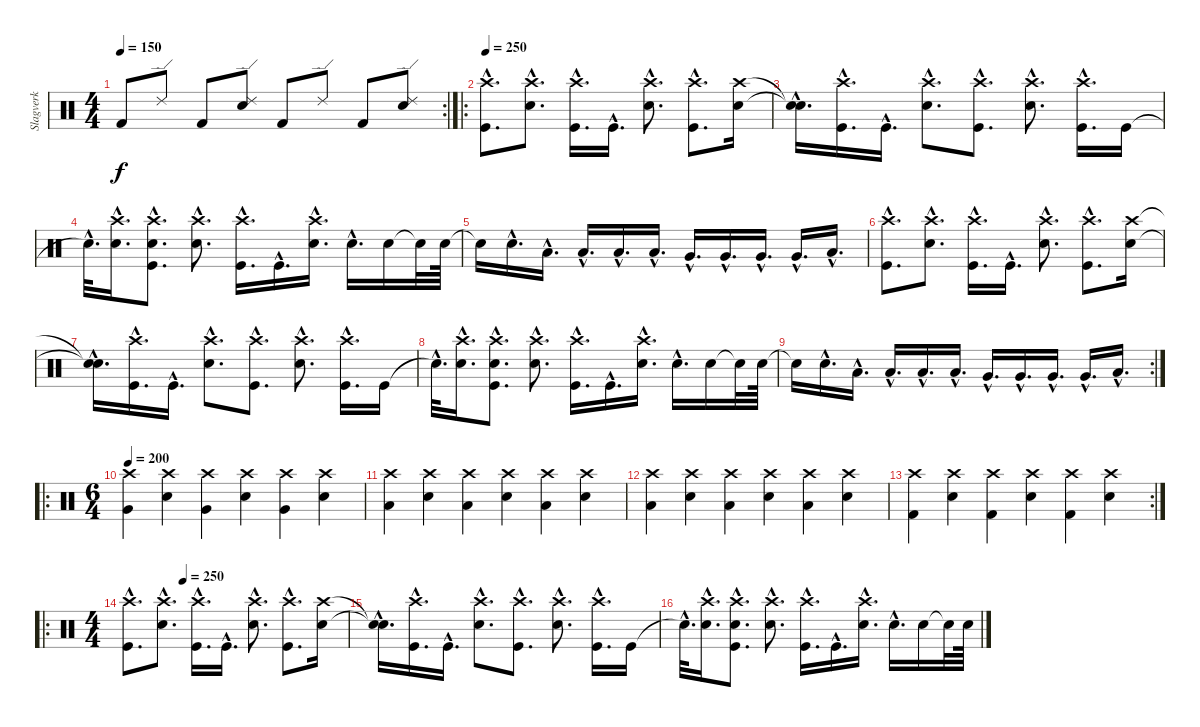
\track ("Slagverk" "Slagverk") {instrument percussion}
\staff {score}
\articulation defaults
\rc 2
\ts (4 4)
\tempo 150
\clef neutral
\ks c "Kick (hit) 2".8{dy f} "Ride (edge) 2".8 "Kick (hit) 2".8
("Ride (edge) 2" "Electric Snare (hit)").8 "Kick (hit) 2".8 "Ride (edge) 2".8 "Kick (hit) 2".8 ("Ride (edge) 2" "Electric Snare (hit)").8 |
\ro
\tempo 250
("Crash high (hit)"{hac} "Kick (hit)"{hac}).8{d} ("Crash high (hit)"{hac} "Snare (hit) 2"{hac}).8{d} ("Crash high (hit)"{hac} "Kick (hit)"{hac}).16{d} "Kick (hit)"{hac}.16{d} ("Crash high (hit)"{hac} "Snare (hit) 2"{hac}).8{d} ("Crash high (hit)"{hac} "Kick (hit)"{hac}).8{d} ("Crash high (hit)" "Snare (hit) 2").16 |
("Snare (hit)"{hac t} "Snare (hit)"{hac t}).16{d} ("Crash high (hit)"{hac} "Kick (hit)"{hac}).16{d} "Kick (hit)"{hac}.16{d} ("Crash high (hit)"{hac} "Snare (hit) 2"{hac}).8{d} ("Crash high (hit)"{hac} "Kick (hit)"{hac}).8{d} ("Crash high (hit)"{hac} "Snare (hit) 2"{hac}).8{d} ("Crash high (hit)"{hac} "Kick (hit)"{hac}).16{d} "Kick (hit)".16 |
"Snare (hit)"{hac t}.32{d} ("Crash high (hit)"{hac} "Snare (hit) 2"{hac}).16{d} ("Crash high (hit)"{hac} "Kick (hit)"{hac} "Snare (hit)"{hac}).8{d} ("Crash high (hit)"{hac} "Snare (hit) 2"{hac}).8{d} ("Crash high (hit)"{hac} "Kick (hit)"{hac}).16{d} "Kick (hit)"{hac}.16{d} ("Crash high (hit)"{hac} "Snare (hit) 2"{hac}).16{d} "Electric Snare (hit)"{hac}.16{d} "Electric Snare (hit)".16 "Snare (hit)"{t}.32 "Electric Snare (hit)".64 |
"Snare (hit)"{t}.16 "Electric Snare (hit)"{hac}.16{d} "Low Tom (hit)"{hac}.16{d} "Low Tom (hit)"{hac}.16{d} "Low Tom (hit)"{hac}.16{d} "Low Tom (hit)"{hac}.16{d} "Very Low Tom (hit)"{hac}.16{d} "Very Low Tom (hit)"{hac}.16{d} "Very Low Tom (hit)"{hac}.16{d} "Very Low Tom (hit)"{hac}.16{d} "Low Floor Tom (hit)"{hac}.16{d} |
("Crash high (hit)"{hac} "Kick (hit)"{hac}).8{d} ("Crash high (hit)"{hac} "Snare (hit) 2"{hac}).8{d} ("Crash high (hit)"{hac} "Kick (hit)"{hac}).16{d} "Kick (hit)"{hac}.16{d} ("Crash high (hit)"{hac} "Snare (hit) 2"{hac}).8{d} ("Crash high (hit)"{hac} "Kick (hit)"{hac}).8{d} ("Crash high (hit)" "Snare (hit) 2").16 |
("Snare (hit)"{hac t} "Snare (hit)"{hac t}).16{d} ("Crash high (hit)"{hac} "Kick (hit)"{hac}).16{d} "Kick (hit)"{hac}.16{d} ("Crash high (hit)"{hac} "Snare (hit) 2"{hac}).8{d} ("Crash high (hit)"{hac} "Kick (hit)"{hac}).8{d} ("Crash high (hit)"{hac} "Snare (hit) 2"{hac}).8{d} ("Crash high (hit)"{hac} "Kick (hit)"{hac}).16{d} "Kick (hit)".16 |
"Snare (hit)"{hac t}.32{d} ("Crash high (hit)"{hac} "Snare (hit) 2"{hac}).16{d} ("Crash high (hit)"{hac} "Kick (hit)"{hac} "Snare (hit)"{hac}).8{d} ("Crash high (hit)"{hac} "Snare (hit) 2"{hac}).8{d} ("Crash high (hit)"{hac} "Kick (hit)"{hac}).16{d} "Kick (hit)"{hac}.16{d} ("Crash high (hit)"{hac} "Snare (hit) 2"{hac}).16{d} "Electric Snare (hit)"{hac}.16{d} "Electric Snare (hit)".16 "Snare (hit)"{t}.32 "Electric Snare (hit)".64 |
\rc 2 "Snare (hit)"{t}.16 "Electric Snare (hit)"{hac}.16{d} "Low Tom (hit)"{hac}.16{d} "Low Tom (hit)"{hac}.16{d} "Low Tom (hit)"{hac}.16{d} "Low Tom (hit)"{hac}.16{d} "Very Low Tom (hit)"{hac}.16{d} "Very Low Tom (hit)"{hac}.16{d} "Very Low Tom (hit)"{hac}.16{d} "Very Low Tom (hit)"{hac}.16{d} "Low Floor Tom (hit)"{hac}.16{d}
|
\ro
\ts (6 4)
\tempo 200
("Crash high (hit)" "Very Low Tom (hit)").4 ("Crash high (hit)" "Electric Snare (hit)").4 ("Crash high (hit)" "Very Low Tom (hit)").4 ("Crash high (hit)" "Electric Snare (hit)").4 ("Crash high (hit)" "Very Low Tom (hit)").4 ("Crash high (hit)" "Electric Snare (hit)").4 |
("Crash high (hit)" "Low Tom (hit)").4 ("Crash high (hit)" "Electric Snare (hit)").4 ("Crash high (hit)" "Low Tom (hit)").4 ("Crash high (hit)" "Electric Snare (hit)").4 ("Crash high (hit)" "Low Tom (hit)").4 ("Crash high (hit)" "Electric Snare (hit)").4 |
("Crash high (hit)" "Low Floor Tom (hit)").4 ("Crash high (hit)" "Electric Snare (hit)").4 ("Crash high (hit)" "Low Floor Tom (hit)").4 ("Crash high (hit)" "Electric Snare (hit)").4 ("Crash high (hit)" "Low Floor Tom (hit)").4 ("Crash high (hit)" "Electric Snare (hit)").4 |
\rc 2
("Crash high (hit)" "Kick (hit) 2").4 ("Crash high (hit)" "Electric Snare (hit)").4 ("Crash high (hit)" "Kick (hit) 2").4 ("Crash high (hit)" "Electric Snare (hit)").4 ("Crash high (hit)" "Kick (hit) 2").4 ("Crash high (hit)" "Electric Snare (hit)").4 |
\ro
\ts (4 4)
\tempo (250 0.25)
("Crash high (hit)"{hac} "Kick (hit)"{hac}).8{d} ("Crash high (hit)"{hac} "Snare (hit) 2"{hac}).8{d} ("Crash high (hit)"{hac} "Kick (hit)"{hac}).16{d} "Kick (hit)"{hac}.16{d} ("Crash high (hit)"{hac} "Snare (hit) 2"{hac}).8{d} ("Crash high (hit)"{hac} "Kick (hit)"{hac}).8{d} ("Crash high (hit)" "Snare (hit) 2").16 |
("Snare (hit)"{hac t} "Snare (hit)"{hac t}).16{d} ("Crash high (hit)"{hac} "Kick (hit)"{hac}).16{d} "Kick (hit)"{hac}.16{d} ("Crash high (hit)"{hac} "Snare (hit) 2"{hac}).8{d} ("Crash high (hit)"{hac} "Kick (hit)"{hac}).8{d} ("Crash high (hit)"{hac} "Snare (hit) 2"{hac}).8{d} ("Crash high (hit)"{hac} "Kick (hit)"{hac}).16{d} "Kick (hit)".16 |
"Snare (hit)"{hac t}.32{d} ("Crash high (hit)"{hac} "Snare (hit) 2"{hac}).16{d} ("Crash high (hit)"{hac} "Kick (hit)"{hac} "Snare (hit)"{hac}).8{d} ("Crash high (hit)"{hac} "Snare (hit) 2"{hac}).8{d} ("Crash high (hit)"{hac} "Kick (hit)"{hac}).16{d} "Kick (hit)"{hac}.16{d} ("Crash high (hit)"{hac} "Snare (hit) 2"{hac}).16{d} "Electric Snare (hit)"{hac}.16{d} "Electric Snare (hit)".16 "Snare (hit)"{t}.32 "Electric Snare (hit)".64
